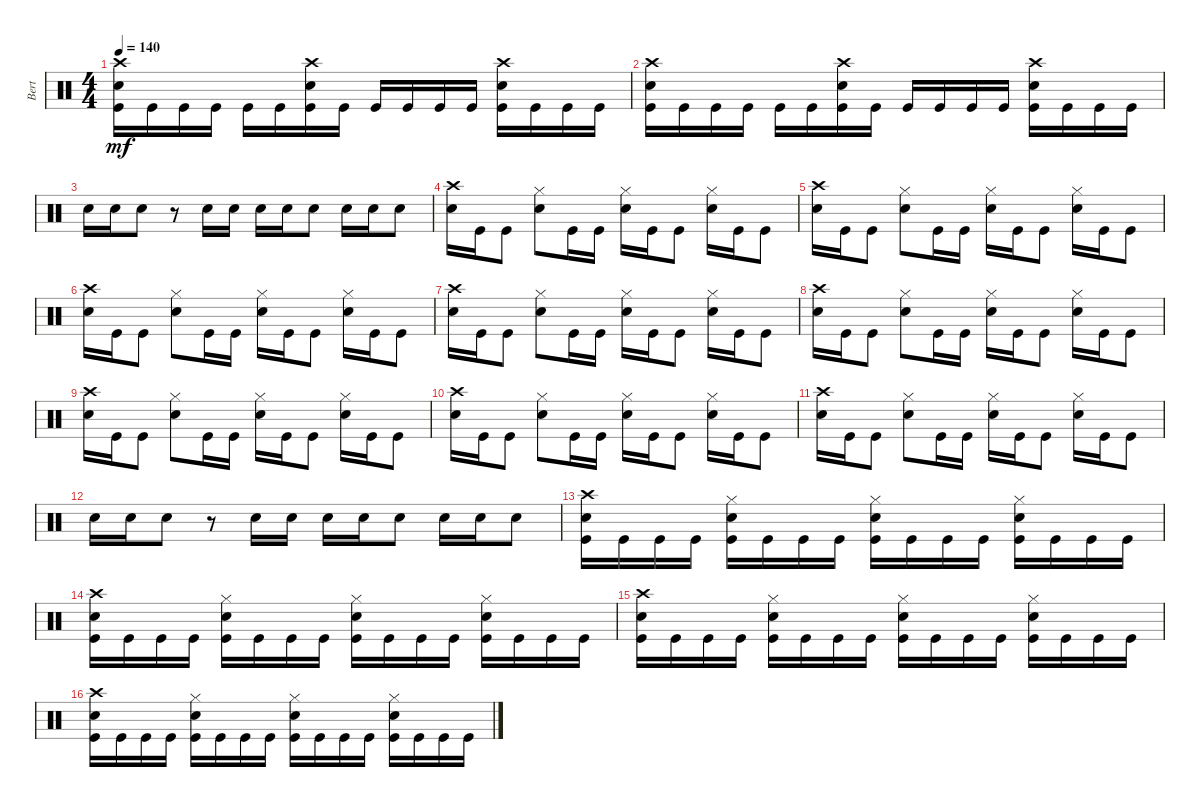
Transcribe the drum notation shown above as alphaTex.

\track ("Bert" "Bert") {instrument percussion}
\staff {score}
\articulation defaults
\ts (4 4)
\tempo 140
\clef neutral
\ks c
("Kick (hit)" "Electric Snare (hit)" "Crash high (hit)").16{dy mf} "Kick (hit)".16 "Kick (hit)".16 "Kick (hit)".16 "Kick (hit)".16 "Kick (hit)".16 ("Kick (hit)" "Electric Snare (hit)" "Crash high (hit)").16 "Kick (hit)".16 "Kick (hit)".16 "Kick (hit)".16 "Kick (hit)".16 "Kick (hit)".16 ("Electric Snare (hit)" "Kick (hit)" "Crash high (hit)").16 "Kick (hit)".16 "Kick (hit)".16 "Kick (hit)".16 |
("Crash high (hit)" "Electric Snare (hit)" "Kick (hit)").16 "Kick (hit)".16 "Kick (hit)".16 "Kick (hit)".16 "Kick (hit)".16 "Kick (hit)".16 ("Kick (hit)" "Electric Snare (hit)" "Crash high (hit)").16 "Kick (hit)".16 "Kick (hit)".16 "Kick (hit)".16 "Kick (hit)".16 "Kick (hit)".16 ("Kick (hit)" "Electric Snare (hit)" "Crash high (hit)").16 "Kick (hit)".16 "Kick (hit)".16 "Kick (hit)".16 |
"Electric Snare (hit)".16 "Electric Snare (hit)".16 "Electric Snare (hit)".8 r.8 "Electric Snare (hit)".16 "Electric Snare (hit)".16 "Electric Snare (hit)".16 "Electric Snare (hit)".16 "Electric Snare (hit)".8 "Electric Snare (hit)".16 "Electric Snare (hit)".16 "Electric Snare (hit)".8 |
("Electric Snare (hit)" "Crash high (hit)").16 "Kick (hit)".16 "Kick (hit)".8 ("Hi-Hat (closed)" "Electric Snare (hit)").8 "Kick (hit)".16 "Kick (hit)".16 ("Electric Snare (hit)" "Hi-Hat (closed)").16 "Kick (hit)".16 "Kick (hit)".8 ("Electric Snare (hit)" "Hi-Hat (closed)").16 "Kick (hit)".16 "Kick (hit)".8 |
("Crash high (hit)" "Electric Snare (hit)").16 "Kick (hit)".16 "Kick (hit)".8 ("Hi-Hat (closed)" "Electric Snare (hit)").8 "Kick (hit)".16 "Kick (hit)".16 ("Electric Snare (hit)" "Hi-Hat (closed)").16 "Kick (hit)".16 "Kick (hit)".8 ("Electric Snare (hit)" "Hi-Hat (closed)").16 "Kick (hit)".16 "Kick (hit)".8 |
("Crash high (hit)" "Electric Snare (hit)").16 "Kick (hit)".16 "Kick (hit)".8 ("Hi-Hat (closed)" "Electric Snare (hit)").8 "Kick (hit)".16 "Kick (hit)".16 ("Electric Snare (hit)" "Hi-Hat (closed)").16 "Kick (hit)".16 "Kick (hit)".8 ("Hi-Hat (closed)" "Electric Snare (hit)").16 "Kick (hit)".16 "Kick (hit)".8 |
("Crash high (hit)" "Electric Snare (hit)").16 "Kick (hit)".16 "Kick (hit)".8 ("Electric Snare (hit)" "Hi-Hat (closed)").8 "Kick (hit)".16 "Kick (hit)".16 ("Electric Snare (hit)" "Hi-Hat (closed)").16 "Kick (hit)".16 "Kick (hit)".8 ("Electric Snare (hit)" "Hi-Hat (closed)").16 "Kick (hit)".16 "Kick (hit)".8 |
("Electric Snare (hit)" "Crash high (hit)").16 "Kick (hit)".16 "Kick (hit)".8 ("Hi-Hat (closed)" "Electric Snare (hit)").8 "Kick (hit)".16 "Kick (hit)".16 ("Electric Snare (hit)" "Hi-Hat (closed)").16 "Kick (hit)".16 "Kick (hit)".8 ("Hi-Hat (closed)" "Electric Snare (hit)").16 "Kick (hit)".16 "Kick (hit)".8 |
("Crash high (hit)" "Electric Snare (hit)").16 "Kick (hit)".16 "Kick (hit)".8 ("Hi-Hat (closed)" "Electric Snare (hit)").8 "Kick (hit)".16 "Kick (hit)".16 ("Electric Snare (hit)" "Hi-Hat (closed)").16 "Kick (hit)".16 "Kick (hit)".8 ("Hi-Hat (closed)" "Electric Snare (hit)").16 "Kick (hit)".16 "Kick (hit)".8 |
("Crash high (hit)" "Electric Snare (hit)").16 "Kick (hit)".16 "Kick (hit)".8 ("Hi-Hat (closed)" "Electric Snare (hit)").8 "Kick (hit)".16 "Kick (hit)".16 ("Electric Snare (hit)" "Hi-Hat (closed)").16 "Kick (hit)".16 "Kick (hit)".8 ("Hi-Hat (closed)" "Electric Snare (hit)").16 "Kick (hit)".16 "Kick (hit)".8 |
("Crash high (hit)" "Electric Snare (hit)").16 "Kick (hit)".16 "Kick (hit)".8 ("Electric Snare (hit)" "Hi-Hat (closed)").8 "Kick (hit)".16 "Kick (hit)".16 ("Electric Snare (hit)" "Hi-Hat (closed)").16 "Kick (hit)".16 "Kick (hit)".8 ("Electric Snare (hit)" "Hi-Hat (closed)").16 "Kick (hit)".16 "Kick (hit)".8 |
"Electric Snare (hit)".16 "Electric Snare (hit)".16 "Electric Snare (hit)".8 r.8 "Electric Snare (hit)".16 "Electric Snare (hit)".16 "Electric Snare (hit)".16 "Electric Snare (hit)".16 "Electric Snare (hit)".8 "Electric Snare (hit)".16 "Electric Snare (hit)".16 "Electric Snare (hit)".8 |
("Kick (hit)" "Electric Snare (hit)" "Crash high (hit)").16 "Kick (hit)".16 "Kick (hit)".16 "Kick (hit)".16 ("Kick (hit)" "Electric Snare (hit)" "Hi-Hat (closed)").16 "Kick (hit)".16 "Kick (hit)".16 "Kick (hit)".16 ("Electric Snare (hit)" "Hi-Hat (closed)" "Kick (hit)").16 "Kick (hit)".16 "Kick (hit)".16 "Kick (hit)".16 ("Hi-Hat (closed)" "Electric Snare (hit)" "Kick (hit)").16 "Kick (hit)".16 "Kick (hit)".16 "Kick (hit)".16 |
("Kick (hit)" "Electric Snare (hit)" "Crash high (hit)").16 "Kick (hit)".16 "Kick (hit)".16 "Kick (hit)".16 ("Electric Snare (hit)" "Kick (hit)" "Hi-Hat (closed)").16 "Kick (hit)".16 "Kick (hit)".16 "Kick (hit)".16 ("Hi-Hat (closed)" "Electric Snare (hit)" "Kick (hit)").16 "Kick (hit)".16 "Kick (hit)".16 "Kick (hit)".16 ("Kick (hit)" "Hi-Hat (closed)" "Electric Snare (hit)").16 "Kick (hit)".16 "Kick (hit)".16 "Kick (hit)".16 |
("Crash high (hit)" "Electric Snare (hit)" "Kick (hit)").16 "Kick (hit)".16 "Kick (hit)".16 "Kick (hit)".16 ("Electric Snare (hit)" "Hi-Hat (closed)" "Kick (hit)").16 "Kick (hit)".16 "Kick (hit)".16 "Kick (hit)".16 ("Electric Snare (hit)" "Kick (hit)" "Hi-Hat (closed)").16 "Kick (hit)".16 "Kick (hit)".16 "Kick (hit)".16 ("Hi-Hat (closed)" "Electric Snare (hit)" "Kick (hit)").16 "Kick (hit)".16 "Kick (hit)".16 "Kick (hit)".16 |
("Crash high (hit)" "Electric Snare (hit)" "Kick (hit)").16 "Kick (hit)".16 "Kick (hit)".16 "Kick (hit)".16 ("Electric Snare (hit)" "Hi-Hat (closed)" "Kick (hit)").16 "Kick (hit)".16 "Kick (hit)".16 "Kick (hit)".16 ("Electric Snare (hit)" "Kick (hit)" "Hi-Hat (closed)").16 "Kick (hit)".16 "Kick (hit)".16 "Kick (hit)".16 ("Hi-Hat (closed)" "Electric Snare (hit)" "Kick (hit)").16 "Kick (hit)".16 "Kick (hit)".16 "Kick (hit)".16
